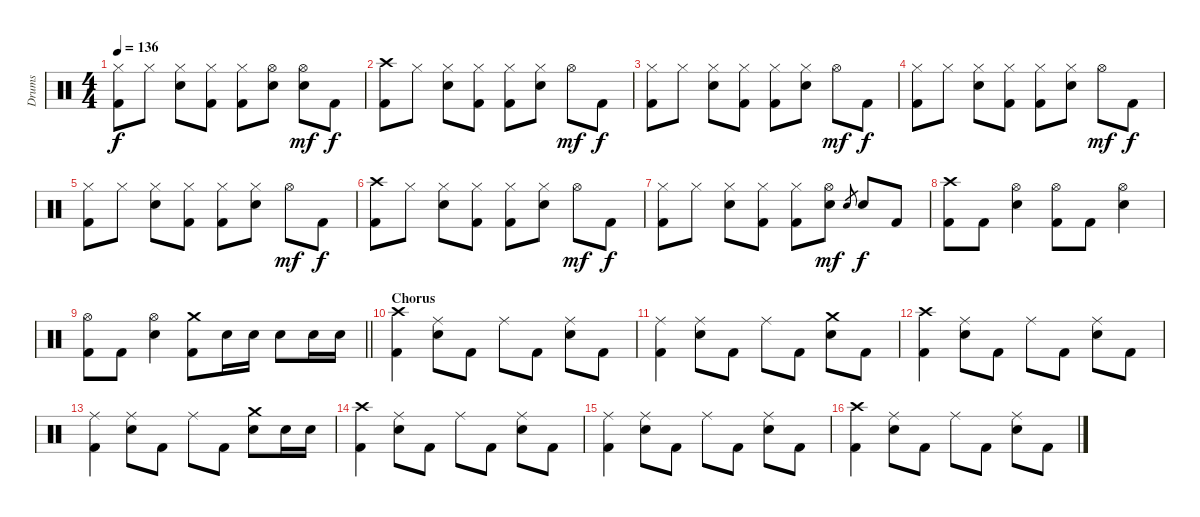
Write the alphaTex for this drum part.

\track ("Drums" "Drums") {instrument percussion}
\staff {score}
\articulation defaults
\ts (4 4)
\tempo 136
\clef neutral
\ks c
("Hi-Hat (closed)" "Kick (hit) 2").8{dy f} "Hi-Hat (closed)".8 ("Hi-Hat (closed)" "Electric Snare (hit)").8 ("Hi-Hat (closed)" "Kick (hit) 2").8 ("Hi-Hat (closed)" "Kick (hit) 2").8 ("Hi-Hat (open)" "Electric Snare (hit)").8 ("Hi-Hat (open)" "Electric Snare (hit)").8{dy mf} "Kick (hit) 2".8{dy f} |
("Crash high (hit)" "Kick (hit) 2").8 "Hi-Hat (closed)".8 ("Hi-Hat (closed)" "Electric Snare (hit)").8 ("Hi-Hat (closed)" "Kick (hit) 2").8 ("Hi-Hat (closed)" "Kick (hit) 2").8 ("Hi-Hat (closed)" "Electric Snare (hit)").8 "Hi-Hat (open)".8{dy mf} "Kick (hit) 2".8{dy f} |
("Hi-Hat (closed)" "Kick (hit) 2").8 "Hi-Hat (closed)".8 ("Hi-Hat (closed)" "Electric Snare (hit)").8 ("Hi-Hat (closed)" "Kick (hit) 2").8 ("Hi-Hat (closed)" "Kick (hit) 2").8 ("Hi-Hat (closed)" "Electric Snare (hit)").8 "Hi-Hat (open)".8{dy mf} "Kick (hit) 2".8{dy f} |
("Hi-Hat (closed)" "Kick (hit) 2").8 "Hi-Hat (closed)".8 ("Hi-Hat (closed)" "Electric Snare (hit)").8 ("Hi-Hat (closed)" "Kick (hit) 2").8 ("Hi-Hat (closed)" "Kick (hit) 2").8 ("Hi-Hat (closed)" "Electric Snare (hit)").8 "Hi-Hat (open)".8{dy mf} "Kick (hit) 2".8{dy f} |
("Hi-Hat (closed)" "Kick (hit) 2").8 "Hi-Hat (closed)".8 ("Hi-Hat (closed)" "Electric Snare (hit)").8 ("Hi-Hat (closed)" "Kick (hit) 2").8 ("Hi-Hat (closed)" "Kick (hit) 2").8 ("Hi-Hat (closed)" "Electric Snare (hit)").8 "Hi-Hat (open)".8{dy mf} "Kick (hit) 2".8{dy f} |
("Crash high (hit)" "Kick (hit) 2").8 "Hi-Hat (closed)".8 ("Hi-Hat (closed)" "Electric Snare (hit)").8 ("Hi-Hat (closed)" "Kick (hit) 2").8 ("Hi-Hat (closed)" "Kick (hit) 2").8 ("Hi-Hat (closed)" "Electric Snare (hit)").8 "Hi-Hat (open)".8{dy mf} "Kick (hit) 2".8{dy f} |
("Hi-Hat (closed)" "Kick (hit) 2").8 "Hi-Hat (closed)".8 ("Hi-Hat (closed)" "Electric Snare (hit)").8 ("Hi-Hat (closed)" "Kick (hit) 2").8 ("Hi-Hat (closed)" "Kick (hit) 2").8 ("Hi-Hat (open)" "Electric Snare (hit)").8{dy mf} "Electric Snare (hit)".8{gr} "Electric Snare (hit)".8{dy f} "Kick (hit) 2".8 |
("Crash high (hit)" "Kick (hit) 2").8 "Kick (hit) 2".8 ("Hi-Hat (open)" "Electric Snare (hit)").4 ("Hi-Hat (open)" "Kick (hit) 2").8 "Kick (hit) 2".8 ("Hi-Hat (open)" "Electric Snare (hit)").4 |
\barLineRight lightlight
("Hi-Hat (open)" "Kick (hit) 2").8 "Kick (hit) 2".8 ("Hi-Hat (open)" "Electric Snare (hit)").4 ("Crash medium (hit)" "Kick (hit) 2").8 "Electric Snare (hit)".16 "Electric Snare (hit)".16 "Electric Snare (hit)".8 "Electric Snare (hit)".16 "Electric Snare (hit)".16 |
\section ("" "Chorus")
("Crash high (hit)" "Kick (hit) 2").4 ("Ride (middle)" "Electric Snare (hit)").8 "Kick (hit) 2".8 "Ride (middle)".8 "Kick (hit) 2".8 ("Ride (middle)" "Electric Snare (hit)").8 "Kick (hit) 2".8 |
("Ride (middle)" "Kick (hit) 2").4 ("Ride (middle)" "Electric Snare (hit)").8 "Kick (hit) 2".8 "Ride (middle)".8 "Kick (hit) 2".8 ("Crash medium (hit)" "Electric Snare (hit)").8 "Kick (hit) 2".8 |
("Crash high (hit)" "Kick (hit) 2").4 ("Ride (middle)" "Electric Snare (hit)").8 "Kick (hit) 2".8 "Ride (middle)".8 "Kick (hit) 2".8 ("Ride (middle)" "Electric Snare (hit)").8 "Kick (hit) 2".8 |
("Ride (middle)" "Kick (hit) 2").4 ("Ride (middle)" "Electric Snare (hit)").8 "Kick (hit) 2".8 "Ride (middle)".8 "Kick (hit) 2".8 ("Crash medium (hit)" "Electric Snare (hit)").8 "Electric Snare (hit)".16 "Electric Snare (hit)".16 |
("Crash high (hit)" "Kick (hit) 2").4 ("Ride (middle)" "Electric Snare (hit)").8 "Kick (hit) 2".8 "Ride (middle)".8 "Kick (hit) 2".8 ("Ride (middle)" "Electric Snare (hit)").8 "Kick (hit) 2".8 |
("Ride (middle)" "Kick (hit) 2").4 ("Ride (middle)" "Electric Snare (hit)").8 "Kick (hit) 2".8 "Ride (middle)".8 "Kick (hit) 2".8 ("Ride (middle)" "Electric Snare (hit)").8 "Kick (hit) 2".8 |
("Crash high (hit)" "Kick (hit) 2").4 ("Ride (middle)" "Electric Snare (hit)").8 "Kick (hit) 2".8 "Ride (middle)".8 "Kick (hit) 2".8 ("Ride (middle)" "Electric Snare (hit)").8 "Kick (hit) 2".8
